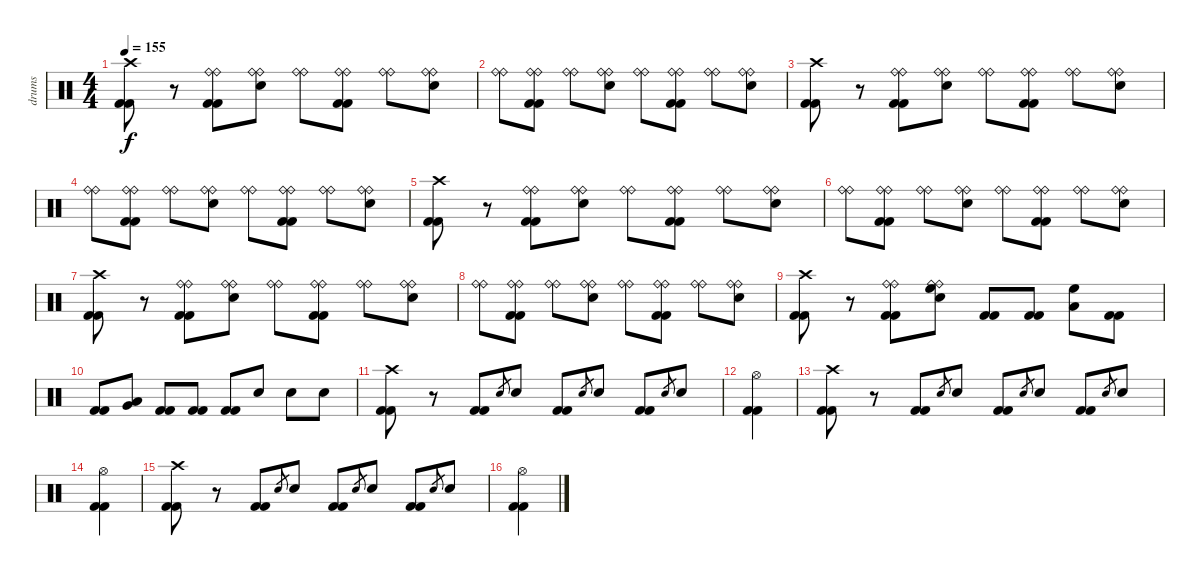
\track ("drums" "drums") {instrument percussion}
\staff {score}
\articulation defaults
\ts (4 4)
\tempo 155
\clef neutral
\ks c
("Crash high (hit)" "Kick (hit) 2" "Kick (hit) 2").8{dy f} r.8 ("Ride (bell)" "Ride (bell)" "Kick (hit) 2" "Kick (hit) 2").8 ("Ride (bell)" "Ride (bell)" "Electric Snare (hit)").8 ("Ride (bell)" "Ride (bell)").8 ("Ride (bell)" "Ride (bell)" "Kick (hit) 2" "Kick (hit) 2").8 ("Ride (bell)" "Ride (bell)").8 ("Ride (bell)" "Ride (bell)" "Electric Snare (hit)").8 |
("Ride (bell)" "Ride (bell)").8 ("Ride (bell)" "Ride (bell)" "Kick (hit) 2" "Kick (hit) 2").8 ("Ride (bell)" "Ride (bell)").8 ("Ride (bell)" "Ride (bell)" "Electric Snare (hit)").8 ("Ride (bell)" "Ride (bell)").8 ("Ride (bell)" "Ride (bell)" "Kick (hit) 2" "Kick (hit) 2").8 ("Ride (bell)" "Ride (bell)").8 ("Ride (bell)" "Ride (bell)" "Electric Snare (hit)").8 |
("Crash high (hit)" "Kick (hit) 2" "Kick (hit) 2").8 r.8 ("Ride (bell)" "Ride (bell)" "Kick (hit) 2" "Kick (hit) 2").8 ("Ride (bell)" "Ride (bell)" "Electric Snare (hit)").8 ("Ride (bell)" "Ride (bell)").8 ("Ride (bell)" "Ride (bell)" "Kick (hit) 2" "Kick (hit) 2").8 ("Ride (bell)" "Ride (bell)").8 ("Ride (bell)" "Ride (bell)" "Electric Snare (hit)").8 |
("Ride (bell)" "Ride (bell)").8 ("Ride (bell)" "Ride (bell)" "Kick (hit) 2" "Kick (hit) 2").8 ("Ride (bell)" "Ride (bell)").8 ("Ride (bell)" "Ride (bell)" "Electric Snare (hit)").8 ("Ride (bell)" "Ride (bell)").8 ("Ride (bell)" "Ride (bell)" "Kick (hit) 2" "Kick (hit) 2").8 ("Ride (bell)" "Ride (bell)").8 ("Ride (bell)" "Ride (bell)" "Electric Snare (hit)").8 |
("Crash high (hit)" "Kick (hit) 2" "Kick (hit) 2").8 r.8 ("Ride (bell)" "Ride (bell)" "Kick (hit) 2" "Kick (hit) 2").8 ("Ride (bell)" "Ride (bell)" "Electric Snare (hit)").8 ("Ride (bell)" "Ride (bell)").8 ("Ride (bell)" "Ride (bell)" "Kick (hit) 2" "Kick (hit) 2").8 ("Ride (bell)" "Ride (bell)").8 ("Ride (bell)" "Ride (bell)" "Electric Snare (hit)").8 |
("Ride (bell)" "Ride (bell)").8 ("Ride (bell)" "Ride (bell)" "Kick (hit) 2" "Kick (hit) 2").8 ("Ride (bell)" "Ride (bell)").8 ("Ride (bell)" "Ride (bell)" "Electric Snare (hit)").8 ("Ride (bell)" "Ride (bell)").8 ("Ride (bell)" "Ride (bell)" "Kick (hit) 2" "Kick (hit) 2").8 ("Ride (bell)" "Ride (bell)").8 ("Ride (bell)" "Ride (bell)" "Electric Snare (hit)").8 |
("Crash high (hit)" "Kick (hit) 2" "Kick (hit) 2").8 r.8 ("Ride (bell)" "Ride (bell)" "Kick (hit) 2" "Kick (hit) 2").8 ("Ride (bell)" "Ride (bell)" "Electric Snare (hit)").8 ("Ride (bell)" "Ride (bell)").8 ("Ride (bell)" "Ride (bell)" "Kick (hit) 2" "Kick (hit) 2").8 ("Ride (bell)" "Ride (bell)").8 ("Ride (bell)" "Ride (bell)" "Electric Snare (hit)").8 |
("Ride (bell)" "Ride (bell)").8 ("Ride (bell)" "Ride (bell)" "Kick (hit) 2" "Kick (hit) 2").8 ("Ride (bell)" "Ride (bell)").8 ("Ride (bell)" "Ride (bell)" "Electric Snare (hit)").8 ("Ride (bell)" "Ride (bell)").8 ("Ride (bell)" "Ride (bell)" "Kick (hit) 2" "Kick (hit) 2").8 ("Ride (bell)" "Ride (bell)").8 ("Ride (bell)" "Ride (bell)" "Electric Snare (hit)").8 |
("Crash high (hit)" "Kick (hit) 2" "Kick (hit) 2").8 r.8 ("Ride (bell)" "Ride (bell)" "Kick (hit) 2" "Kick (hit) 2").8 ("Ride (bell)" "Ride (bell)" "Electric Snare (hit)" "High Floor Tom (hit)").8 ("Kick (hit) 2" "Kick (hit) 2").8 ("Kick (hit) 2" "Kick (hit) 2").8 ("Low Tom (hit)" "High Floor Tom (hit)").8 ("Kick (hit) 2" "Kick (hit) 2").8 |
("Kick (hit) 2" "Kick (hit) 2").8 ("Very Low Tom (hit)" "Low Tom (hit)").8 ("Kick (hit) 2" "Kick (hit) 2").8 ("Kick (hit) 2" "Kick (hit) 2").8 ("Kick (hit) 2" "Kick (hit) 2").8 "Electric Snare (hit)".8 "Electric Snare (hit)".8 "Electric Snare (hit)".8 |
("Crash high (hit)" "Kick (hit) 2" "Kick (hit) 2").8 r.8 ("Kick (hit) 2" "Kick (hit) 2").8 "Electric Snare (hit)".8{gr} "Electric Snare (hit)".8 ("Kick (hit) 2" "Kick (hit) 2").8 "Electric Snare (hit)".8{gr} "Electric Snare (hit)".8 ("Kick (hit) 2" "Kick (hit) 2").8 "Electric Snare (hit)".8{gr} "Electric Snare (hit)".8 |
("Hi-Hat (open)" "Kick (hit) 2" "Kick (hit) 2").4 |
("Crash high (hit)" "Kick (hit) 2" "Kick (hit) 2").8 r.8 ("Kick (hit) 2" "Kick (hit) 2").8 "Electric Snare (hit)".8{gr} "Electric Snare (hit)".8 ("Kick (hit) 2" "Kick (hit) 2").8 "Electric Snare (hit)".8{gr} "Electric Snare (hit)".8 ("Kick (hit) 2" "Kick (hit) 2").8 "Electric Snare (hit)".8{gr} "Electric Snare (hit)".8 |
("Hi-Hat (open)" "Kick (hit) 2" "Kick (hit) 2").4 |
("Crash high (hit)" "Kick (hit) 2" "Kick (hit) 2").8 r.8 ("Kick (hit) 2" "Kick (hit) 2").8 "Electric Snare (hit)".8{gr} "Electric Snare (hit)".8 ("Kick (hit) 2" "Kick (hit) 2").8 "Electric Snare (hit)".8{gr} "Electric Snare (hit)".8 ("Kick (hit) 2" "Kick (hit) 2").8 "Electric Snare (hit)".8{gr} "Electric Snare (hit)".8 |
("Hi-Hat (open)" "Kick (hit) 2" "Kick (hit) 2").4
